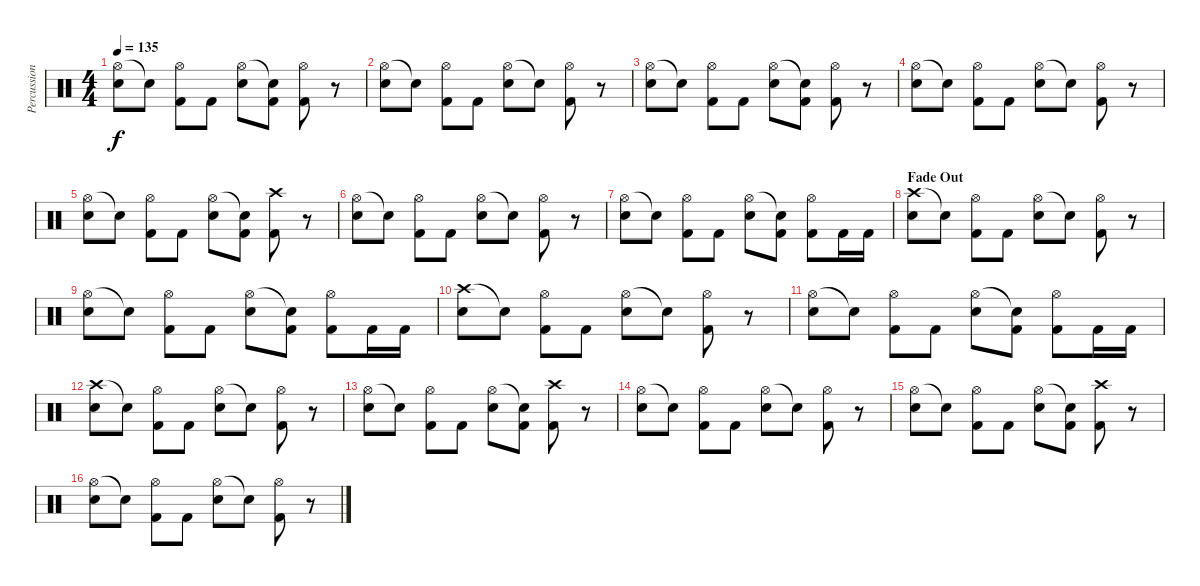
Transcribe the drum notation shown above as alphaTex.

\track ("Percussion" "Percussion") {instrument percussion}
\staff {score}
\articulation defaults
\ts (4 4)
\tempo 135
\clef neutral
\ks c
("Hi-Hat (open)" "Electric Snare (hit)").8{dy f} "Electric Snare (hit)"{t}.8 ("Hi-Hat (open)" "Kick (hit) 2").8 "Kick (hit) 2".8 ("Hi-Hat (open)" "Electric Snare (hit)").8 ("Electric Snare (hit)"{t} "Kick (hit) 2").8 ("Hi-Hat (open)" "Kick (hit) 2").8 r.8 |
("Hi-Hat (open)" "Electric Snare (hit)").8 "Electric Snare (hit)"{t}.8 ("Hi-Hat (open)" "Kick (hit) 2").8 "Kick (hit) 2".8 ("Hi-Hat (open)" "Electric Snare (hit)").8 "Electric Snare (hit)"{t}.8 ("Hi-Hat (open)" "Kick (hit) 2").8 r.8 |
("Hi-Hat (open)" "Electric Snare (hit)").8 "Electric Snare (hit)"{t}.8 ("Hi-Hat (open)" "Kick (hit) 2").8 "Kick (hit) 2".8 ("Hi-Hat (open)" "Electric Snare (hit)").8 ("Electric Snare (hit)"{t} "Kick (hit) 2").8 ("Hi-Hat (open)" "Kick (hit) 2").8 r.8 |
("Hi-Hat (open)" "Electric Snare (hit)").8 "Electric Snare (hit)"{t}.8 ("Hi-Hat (open)" "Kick (hit) 2").8 "Kick (hit) 2".8 ("Hi-Hat (open)" "Electric Snare (hit)").8 "Electric Snare (hit)"{t}.8 ("Hi-Hat (open)" "Kick (hit) 2").8 r.8 |
("Hi-Hat (open)" "Electric Snare (hit)").8 "Electric Snare (hit)"{t}.8 ("Hi-Hat (open)" "Kick (hit) 2").8 "Kick (hit) 2".8 ("Hi-Hat (open)" "Electric Snare (hit)").8 ("Electric Snare (hit)"{t} "Kick (hit) 2").8 ("Crash high (hit)" "Kick (hit) 2").8 r.8 |
("Hi-Hat (open)" "Electric Snare (hit)").8 "Electric Snare (hit)"{t}.8 ("Hi-Hat (open)" "Kick (hit) 2").8 "Kick (hit) 2".8 ("Hi-Hat (open)" "Electric Snare (hit)").8 "Electric Snare (hit)"{t}.8 ("Hi-Hat (open)" "Kick (hit) 2").8 r.8 |
("Hi-Hat (open)" "Electric Snare (hit)").8 "Electric Snare (hit)"{t}.8 ("Hi-Hat (open)" "Kick (hit) 2").8 "Kick (hit) 2".8 ("Hi-Hat (open)" "Electric Snare (hit)").8 ("Electric Snare (hit)"{t} "Kick (hit) 2").8 ("Hi-Hat (open)" "Kick (hit) 2").8 "Kick (hit) 2".16 "Kick (hit) 2".16 |
\section ("" "Fade Out")
("Crash high (hit)" "Electric Snare (hit)").8 "Electric Snare (hit)"{t}.8 ("Hi-Hat (open)" "Kick (hit) 2").8 "Kick (hit) 2".8 ("Hi-Hat (open)" "Electric Snare (hit)").8{volume 13} "Electric Snare (hit)"{t}.8 ("Hi-Hat (open)" "Kick (hit) 2").8 r.8 |
("Hi-Hat (open)" "Electric Snare (hit)").8 "Electric Snare (hit)"{t}.8 ("Hi-Hat (open)" "Kick (hit) 2").8 "Kick (hit) 2".8 ("Hi-Hat (open)" "Electric Snare (hit)").8{volume 12} ("Electric Snare (hit)"{t} "Kick (hit) 2").8 ("Hi-Hat (open)" "Kick (hit) 2").8 "Kick (hit) 2".16 "Kick (hit) 2".16 |
("Crash high (hit)" "Electric Snare (hit)").8 "Electric Snare (hit)"{t}.8 ("Hi-Hat (open)" "Kick (hit) 2").8 "Kick (hit) 2".8 ("Hi-Hat (open)" "Electric Snare (hit)").8{volume 11} "Electric Snare (hit)"{t}.8 ("Hi-Hat (open)" "Kick (hit) 2").8 r.8 |
("Hi-Hat (open)" "Electric Snare (hit)").8 "Electric Snare (hit)"{t}.8 ("Hi-Hat (open)" "Kick (hit) 2").8 "Kick (hit) 2".8 ("Hi-Hat (open)" "Electric Snare (hit)").8{volume 10} ("Electric Snare (hit)"{t} "Kick (hit) 2").8 ("Hi-Hat (open)" "Kick (hit) 2").8 "Kick (hit) 2".16 "Kick (hit) 2".16 |
("Crash high (hit)" "Electric Snare (hit)").8 "Electric Snare (hit)"{t}.8 ("Hi-Hat (open)" "Kick (hit) 2").8 "Kick (hit) 2".8 ("Hi-Hat (open)" "Electric Snare (hit)").8{volume 9} "Electric Snare (hit)"{t}.8 ("Hi-Hat (open)" "Kick (hit) 2").8 r.8 |
("Hi-Hat (open)" "Electric Snare (hit)").8 "Electric Snare (hit)"{t}.8 ("Hi-Hat (open)" "Kick (hit) 2").8 "Kick (hit) 2".8 ("Hi-Hat (open)" "Electric Snare (hit)").8{volume 8} ("Electric Snare (hit)"{t} "Kick (hit) 2").8 ("Crash high (hit)" "Kick (hit) 2").8 r.8 |
("Hi-Hat (open)" "Electric Snare (hit)").8 "Electric Snare (hit)"{t}.8 ("Hi-Hat (open)" "Kick (hit) 2").8 "Kick (hit) 2".8 ("Hi-Hat (open)" "Electric Snare (hit)").8{volume 7} "Electric Snare (hit)"{t}.8 ("Hi-Hat (open)" "Kick (hit) 2").8 r.8 |
("Hi-Hat (open)" "Electric Snare (hit)").8 "Electric Snare (hit)"{t}.8 ("Hi-Hat (open)" "Kick (hit) 2").8 "Kick (hit) 2".8 ("Hi-Hat (open)" "Electric Snare (hit)").8{volume 6} ("Electric Snare (hit)"{t} "Kick (hit) 2").8 ("Crash high (hit)" "Kick (hit) 2").8 r.8 |
("Hi-Hat (open)" "Electric Snare (hit)").8 "Electric Snare (hit)"{t}.8 ("Hi-Hat (open)" "Kick (hit) 2").8 "Kick (hit) 2".8 ("Hi-Hat (open)" "Electric Snare (hit)").8{volume 3} "Electric Snare (hit)"{t}.8 ("Hi-Hat (open)" "Kick (hit) 2").8 r.8
